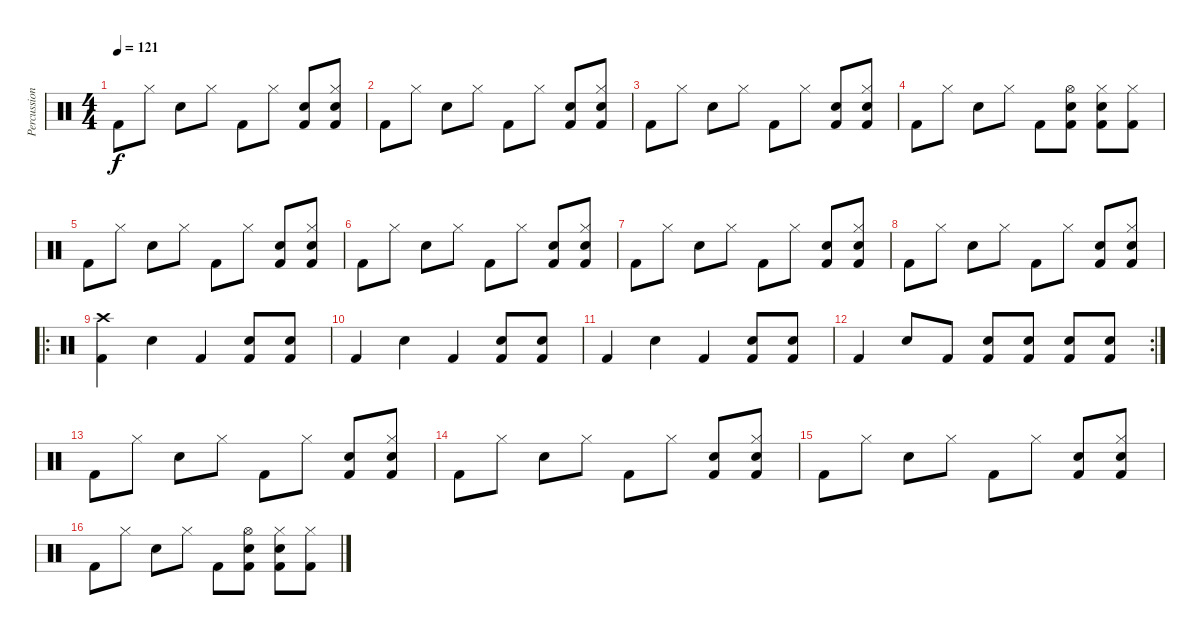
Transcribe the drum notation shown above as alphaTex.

\track ("Percussion" "Percussion") {instrument percussion}
\staff {score}
\articulation defaults
\ts (4 4)
\tempo 121
\clef neutral
\ks c "Kick (hit) 2".8{dy f} "Hi-Hat (closed)".8 "Snare (hit) 2".8 "Hi-Hat (closed)".8 "Kick (hit) 2".8 "Hi-Hat (closed)".8
("Kick (hit) 2" "Snare (hit) 2").8 ("Hi-Hat (closed)" "Kick (hit) 2" "Snare (hit) 2").8 |
"Kick (hit) 2".8 "Hi-Hat (closed)".8 "Snare (hit) 2".8 "Hi-Hat (closed)".8 "Kick (hit) 2".8 "Hi-Hat (closed)".8 ("Kick (hit) 2" "Snare (hit) 2").8 ("Hi-Hat (closed)" "Kick (hit) 2" "Snare (hit) 2").8 |
"Kick (hit) 2".8 "Hi-Hat (closed)".8 "Snare (hit) 2".8 "Hi-Hat (closed)".8 "Kick (hit) 2".8 "Hi-Hat (closed)".8 ("Kick (hit) 2" "Snare (hit) 2").8 ("Hi-Hat (closed)" "Kick (hit) 2" "Snare (hit) 2").8 |
"Kick (hit) 2".8 "Hi-Hat (closed)".8 "Snare (hit) 2".8 "Hi-Hat (closed)".8 "Kick (hit) 2".8 ("Hi-Hat (open)" "Kick (hit) 2" "Snare (hit) 2").8 ("Hi-Hat (closed)" "Kick (hit) 2" "Snare (hit) 2").8 ("Hi-Hat (closed)" "Kick (hit) 2").8 |
"Kick (hit) 2".8 "Hi-Hat (closed)".8 "Snare (hit) 2".8 "Hi-Hat (closed)".8 "Kick (hit) 2".8 "Hi-Hat (closed)".8 ("Kick (hit) 2" "Snare (hit) 2").8 ("Hi-Hat (closed)" "Kick (hit) 2" "Snare (hit) 2").8 |
"Kick (hit) 2".8 "Hi-Hat (closed)".8 "Snare (hit) 2".8 "Hi-Hat (closed)".8 "Kick (hit) 2".8 "Hi-Hat (closed)".8 ("Kick (hit) 2" "Snare (hit) 2").8 ("Hi-Hat (closed)" "Kick (hit) 2" "Snare (hit) 2").8 |
"Kick (hit) 2".8 "Hi-Hat (closed)".8 "Snare (hit) 2".8 "Hi-Hat (closed)".8 "Kick (hit) 2".8 "Hi-Hat (closed)".8 ("Kick (hit) 2" "Snare (hit) 2").8 ("Hi-Hat (closed)" "Kick (hit) 2" "Snare (hit) 2").8 |
"Kick (hit) 2".8 "Hi-Hat (closed)".8 "Snare (hit) 2".8 "Hi-Hat (closed)".8 "Kick (hit) 2".8 "Hi-Hat (closed)".8 ("Kick (hit) 2" "Snare (hit) 2").8 ("Hi-Hat (closed)" "Kick (hit) 2" "Snare (hit) 2").8 |
\ro
("Crash high (hit)" "Kick (hit) 2").4 "Snare (hit) 2".4 "Kick (hit) 2".4 ("Kick (hit) 2" "Snare (hit) 2").8 ("Kick (hit) 2" "Snare (hit) 2").8 |
"Kick (hit) 2".4 "Snare (hit) 2".4 "Kick (hit) 2".4 ("Kick (hit) 2" "Snare (hit) 2").8 ("Kick (hit) 2" "Snare (hit) 2").8 |
"Kick (hit) 2".4 "Snare (hit) 2".4 "Kick (hit) 2".4 ("Kick (hit) 2" "Snare (hit) 2").8 ("Kick (hit) 2" "Snare (hit) 2").8 |
\rc 2 "Kick (hit) 2".4 "Snare (hit) 2".8 "Kick (hit) 2".8
("Kick (hit) 2" "Snare (hit) 2").8 ("Kick (hit) 2" "Snare (hit) 2").8 ("Kick (hit) 2" "Snare (hit) 2").8 ("Kick (hit) 2" "Snare (hit) 2").8 |
"Kick (hit) 2".8 "Hi-Hat (closed)".8 "Snare (hit) 2".8 "Hi-Hat (closed)".8 "Kick (hit) 2".8 "Hi-Hat (closed)".8 ("Kick (hit) 2" "Snare (hit) 2").8 ("Hi-Hat (closed)" "Kick (hit) 2" "Snare (hit) 2").8 |
"Kick (hit) 2".8 "Hi-Hat (closed)".8 "Snare (hit) 2".8 "Hi-Hat (closed)".8 "Kick (hit) 2".8 "Hi-Hat (closed)".8 ("Kick (hit) 2" "Snare (hit) 2").8 ("Hi-Hat (closed)" "Kick (hit) 2" "Snare (hit) 2").8 |
"Kick (hit) 2".8 "Hi-Hat (closed)".8 "Snare (hit) 2".8 "Hi-Hat (closed)".8 "Kick (hit) 2".8 "Hi-Hat (closed)".8 ("Kick (hit) 2" "Snare (hit) 2").8 ("Hi-Hat (closed)" "Kick (hit) 2" "Snare (hit) 2").8 |
"Kick (hit) 2".8 "Hi-Hat (closed)".8 "Snare (hit) 2".8 "Hi-Hat (closed)".8 "Kick (hit) 2".8 ("Hi-Hat (open)" "Kick (hit) 2" "Snare (hit) 2").8 ("Hi-Hat (closed)" "Kick (hit) 2" "Snare (hit) 2").8 ("Hi-Hat (closed)" "Kick (hit) 2").8
